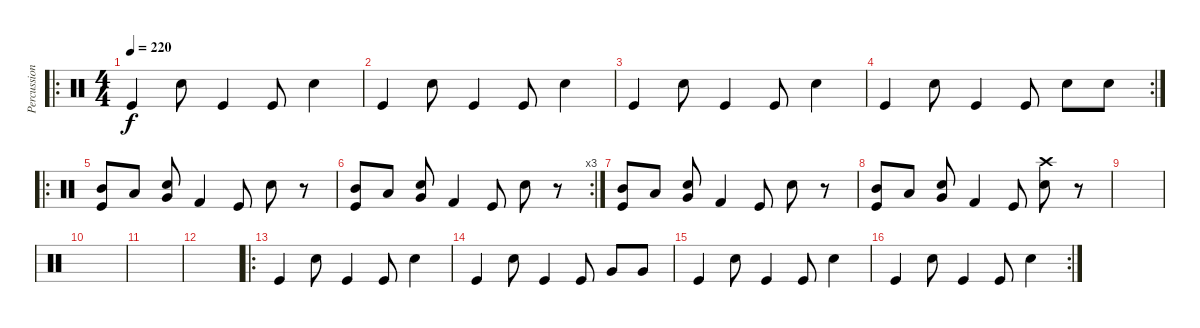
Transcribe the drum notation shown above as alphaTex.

\track ("Percussion" "Percussion") {instrument percussion}
\staff {score}
\articulation defaults
\ro
\ts (4 4)
\tempo 220
\clef neutral
\ks c "Kick (hit)".4{dy f} "Snare (hit) 2".8 "Kick (hit)".4 "Kick (hit)".8 "Snare (hit) 2".4
|
"Kick (hit)".4 "Snare (hit) 2".8 "Kick (hit)".4 "Kick (hit)".8 "Snare (hit) 2".4 |
"Kick (hit)".4 "Snare (hit) 2".8 "Kick (hit)".4 "Kick (hit)".8 "Snare (hit) 2".4 |
\rc 2 "Kick (hit)".4 "Snare (hit) 2".8 "Kick (hit)".4 "Kick (hit)".8 "Snare (hit) 2".8 "Snare (hit) 2".8
|
\ro
("Kick (hit)" "Mid Tom (hit)").8 "Low Tom (hit)".8 ("Very Low Tom (hit)" "Snare (hit) 2").8 "Kick (hit) 2".4 "Kick (hit)".8 "Snare (hit) 2".8 r.8 |
\rc 3
("Kick (hit)" "Mid Tom (hit)").8 "Low Tom (hit)".8 ("Very Low Tom (hit)" "Snare (hit) 2").8 "Kick (hit) 2".4 "Kick (hit)".8 "Snare (hit) 2".8 r.8 |
("Kick (hit)" "Mid Tom (hit)").8 "Low Tom (hit)".8 ("Very Low Tom (hit)" "Snare (hit) 2").8 "Kick (hit) 2".4 "Kick (hit)".8 "Snare (hit) 2".8 r.8 |
("Kick (hit)" "Mid Tom (hit)").8 "Low Tom (hit)".8 ("Very Low Tom (hit)" "Snare (hit) 2").8 "Kick (hit) 2".4 "Kick (hit)".8 ("Snare (hit) 2" "Crash high (hit)").8 r.8 |
|
|
|
|
\ro "Kick (hit)".4 "Snare (hit) 2".8 "Kick (hit)".4 "Kick (hit)".8 "Snare (hit) 2".4
|
"Kick (hit)".4 "Snare (hit) 2".8 "Kick (hit)".4 "Kick (hit)".8 "Very Low Tom (hit)".8 "Very Low Tom (hit)".8 |
"Kick (hit)".4 "Snare (hit) 2".8 "Kick (hit)".4 "Kick (hit)".8 "Snare (hit) 2".4 |
\rc 2 "Kick (hit)".4 "Snare (hit) 2".8 "Kick (hit)".4 "Kick (hit)".8 "Snare (hit) 2".4
